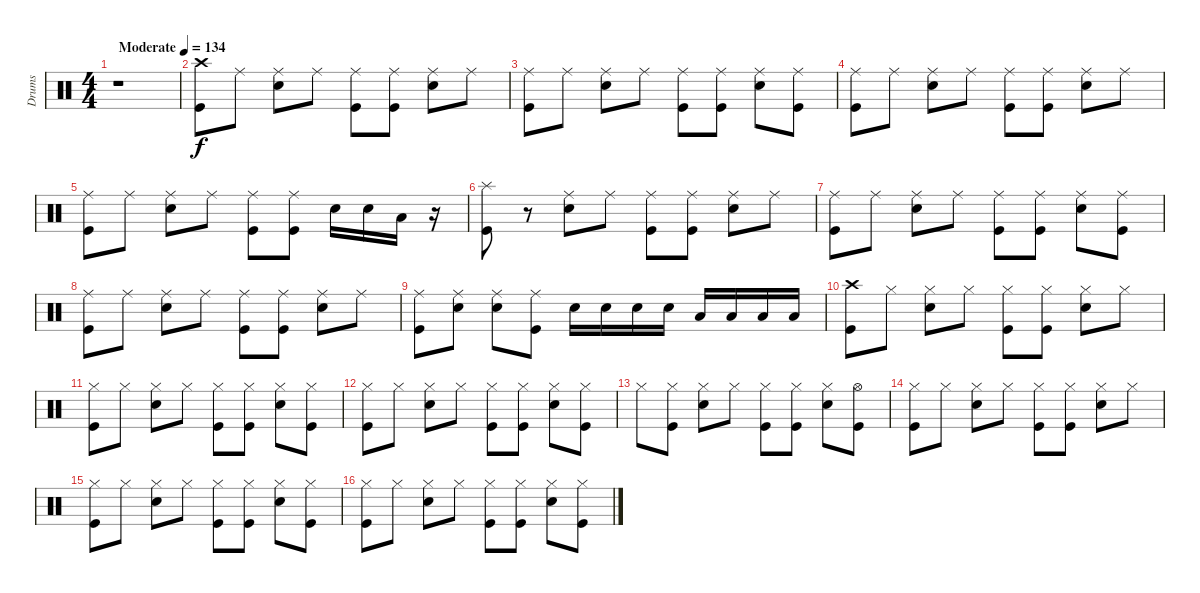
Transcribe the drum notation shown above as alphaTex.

\track ("Drums" "Drums") {instrument percussion}
\staff {score}
\articulation defaults
\ts (4 4)
\tempo (134 "Moderate")
\clef neutral
\ks c
r.1{dy f} |
("Kick (hit)" "Crash high (hit)").8 "Ride (middle)".8 ("Snare (hit) 2" "Ride (middle)").8 "Ride (middle)".8 ("Kick (hit)" "Ride (middle)").8 ("Kick (hit)" "Ride (middle)").8 ("Snare (hit) 2" "Ride (middle)").8 "Ride (middle)".8 |
("Kick (hit)" "Ride (middle)").8 "Ride (middle)".8 ("Snare (hit) 2" "Ride (middle)").8 "Ride (middle)".8 ("Kick (hit)" "Ride (middle)").8 ("Kick (hit)" "Ride (middle)").8 ("Snare (hit) 2" "Ride (middle)").8 ("Kick (hit)" "Ride (middle)").8 |
("Kick (hit)" "Ride (middle)").8 "Ride (middle)".8 ("Snare (hit) 2" "Ride (middle)").8 "Ride (middle)".8 ("Kick (hit)" "Ride (middle)").8 ("Kick (hit)" "Ride (middle)").8 ("Snare (hit) 2" "Ride (middle)").8 "Ride (middle)".8 |
("Kick (hit)" "Ride (middle)").8 "Ride (middle)".8 ("Snare (hit) 2" "Ride (middle)").8 "Ride (middle)".8 ("Kick (hit)" "Ride (middle)").8 ("Kick (hit)" "Ride (middle)").8 "Snare (hit) 2".16 "Snare (hit) 2".16 "Low Tom (hit)".16 r.16 |
("Kick (hit)" "Splash (hit)").8 r.8 ("Snare (hit) 2" "Ride (middle)").8 "Ride (middle)".8 ("Kick (hit)" "Ride (middle)").8 ("Kick (hit)" "Ride (middle)").8 ("Snare (hit) 2" "Ride (middle)").8 "Ride (middle)".8 |
("Kick (hit)" "Ride (middle)").8 "Ride (middle)".8 ("Snare (hit) 2" "Ride (middle)").8 "Ride (middle)".8 ("Kick (hit)" "Ride (middle)").8 ("Kick (hit)" "Ride (middle)").8 ("Snare (hit) 2" "Ride (middle)").8 ("Kick (hit)" "Ride (middle)").8 |
("Kick (hit)" "Ride (middle)").8 "Ride (middle)".8 ("Snare (hit) 2" "Ride (middle)").8 "Ride (middle)".8 ("Kick (hit)" "Ride (middle)").8 ("Kick (hit)" "Ride (middle)").8 ("Snare (hit) 2" "Ride (middle)").8 "Ride (middle)".8 |
("Kick (hit)" "Ride (middle)").8 ("Snare (hit) 2" "Ride (middle)").8 ("Snare (hit) 2" "Ride (middle)").8 ("Kick (hit)" "Ride (middle)").8 "Snare (hit) 2".16 "Snare (hit) 2".16 "Snare (hit) 2".16 "Snare (hit) 2".16 "Low Tom (hit)".16 "Low Tom (hit)".16 "Low Tom (hit)".16 "Low Tom (hit)".16 |
("Crash high (hit)" "Kick (hit)").8 "Hi-Hat (closed)".8 ("Snare (hit) 2" "Hi-Hat (closed)").8 "Hi-Hat (closed)".8 ("Hi-Hat (closed)" "Kick (hit)").8 ("Kick (hit)" "Hi-Hat (closed)").8 ("Snare (hit) 2" "Hi-Hat (closed)").8 "Hi-Hat (closed)".8 |
("Hi-Hat (closed)" "Kick (hit)").8 "Hi-Hat (closed)".8 ("Hi-Hat (closed)" "Snare (hit) 2").8 "Hi-Hat (closed)".8 ("Kick (hit)" "Hi-Hat (closed)").8 ("Kick (hit)" "Hi-Hat (closed)").8 ("Snare (hit) 2" "Hi-Hat (closed)").8 ("Kick (hit)" "Hi-Hat (closed)").8 |
("Kick (hit)" "Hi-Hat (closed)").8 "Hi-Hat (closed)".8 ("Snare (hit) 2" "Hi-Hat (closed)").8 "Hi-Hat (closed)".8 ("Kick (hit)" "Hi-Hat (closed)").8 ("Kick (hit)" "Hi-Hat (closed)").8 ("Hi-Hat (closed)" "Snare (hit) 2").8 ("Hi-Hat (closed)" "Kick (hit)").8 |
"Hi-Hat (closed)".8 ("Hi-Hat (closed)" "Kick (hit)").8 ("Snare (hit) 2" "Hi-Hat (closed)").8 "Hi-Hat (closed)".8 ("Hi-Hat (closed)" "Kick (hit)").8 ("Kick (hit)" "Hi-Hat (closed)").8 ("Hi-Hat (closed)" "Snare (hit) 2").8 ("Kick (hit)" "Hi-Hat (open)").8 |
("Kick (hit)" "Hi-Hat (closed)").8 "Hi-Hat (closed)".8 ("Hi-Hat (closed)" "Snare (hit) 2").8 "Hi-Hat (closed)".8 ("Hi-Hat (closed)" "Kick (hit)").8 ("Kick (hit)" "Hi-Hat (closed)").8 ("Snare (hit) 2" "Hi-Hat (closed)").8 "Hi-Hat (closed)".8 |
("Hi-Hat (closed)" "Kick (hit)").8 "Hi-Hat (closed)".8 ("Hi-Hat (closed)" "Snare (hit) 2").8 "Hi-Hat (closed)".8 ("Kick (hit)" "Hi-Hat (closed)").8 ("Kick (hit)" "Hi-Hat (closed)").8 ("Snare (hit) 2" "Hi-Hat (closed)").8 ("Kick (hit)" "Hi-Hat (closed)").8 |
("Kick (hit)" "Hi-Hat (closed)").8 "Hi-Hat (closed)".8 ("Snare (hit) 2" "Hi-Hat (closed)").8 "Hi-Hat (closed)".8 ("Kick (hit)" "Hi-Hat (closed)").8 ("Kick (hit)" "Hi-Hat (closed)").8 ("Hi-Hat (closed)" "Snare (hit) 2").8 ("Hi-Hat (closed)" "Kick (hit)").8
